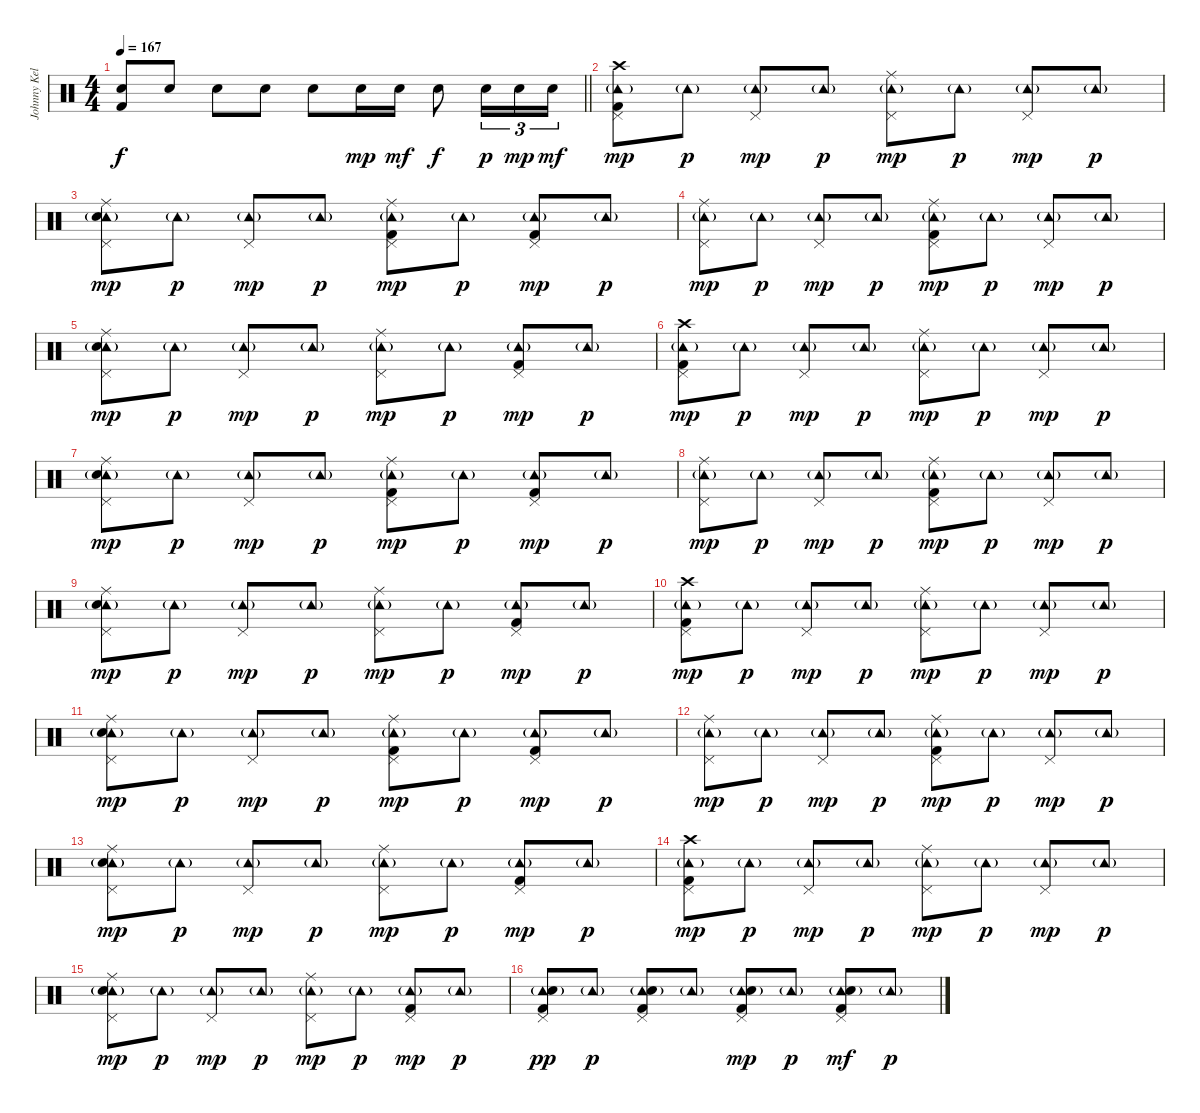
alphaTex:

\track ("Johnny Kelly" "Johnny Kel") {instrument percussion}
\staff {score}
\articulation defaults
\ts (4 4)
\tempo 167
\clef neutral
\barLineRight lightlight
\ks c
("Electric Snare (hit)" "Kick (hit) 2").8{dy f} "Electric Snare (hit)".8 "Electric Snare (hit)".8 "Electric Snare (hit)".8 "Electric Snare (hit)".8 "Electric Snare (hit)".16{dy mp} "Electric Snare (hit)".16{dy mf} "Electric Snare (hit)".8{dy f} "Electric Snare (hit)".16{tu (3 2) dy p} "Electric Snare (hit)".16{tu (3 2) dy mp} "Electric Snare (hit)".16{tu (3 2) dy mf} |
\section ("" "")
("Tambourine (hit)"{g} "Pedal Hi-Hat (hit)" "Crash high (hit)" "Kick (hit) 2").8{dy mp volume 15} "Tambourine (hit)"{g}.8{dy p} ("Tambourine (hit)"{g} "Pedal Hi-Hat (hit)").8{dy mp} "Tambourine (hit)"{g}.8{dy p} ("Tambourine (hit)"{g} "Pedal Hi-Hat (hit)" "Ride (middle)").8{dy mp} "Tambourine (hit)"{g}.8{dy p} ("Tambourine (hit)"{g} "Pedal Hi-Hat (hit)").8{dy mp} "Tambourine (hit)"{g}.8{dy p} |
("Tambourine (hit)"{g} "Pedal Hi-Hat (hit)" "Ride (middle)" "Electric Snare (hit)").8{dy mp} "Tambourine (hit)"{g}.8{dy p} ("Tambourine (hit)"{g} "Pedal Hi-Hat (hit)").8{dy mp} "Tambourine (hit)"{g}.8{dy p} ("Tambourine (hit)"{g} "Pedal Hi-Hat (hit)" "Ride (middle)" "Kick (hit) 2").8{dy mp} "Tambourine (hit)"{g}.8{dy p} ("Tambourine (hit)"{g} "Pedal Hi-Hat (hit)" "Kick (hit) 2").8{dy mp} "Tambourine (hit)"{g}.8{dy p} |
("Tambourine (hit)"{g} "Pedal Hi-Hat (hit)" "Ride (middle)").8{dy mp} "Tambourine (hit)"{g}.8{dy p} ("Tambourine (hit)"{g} "Pedal Hi-Hat (hit)").8{dy mp} "Tambourine (hit)"{g}.8{dy p} ("Tambourine (hit)"{g} "Pedal Hi-Hat (hit)" "Ride (middle)" "Kick (hit) 2").8{dy mp} "Tambourine (hit)"{g}.8{dy p} ("Tambourine (hit)"{g} "Pedal Hi-Hat (hit)").8{dy mp} "Tambourine (hit)"{g}.8{dy p} |
("Tambourine (hit)"{g} "Pedal Hi-Hat (hit)" "Ride (middle)" "Electric Snare (hit)").8{dy mp} "Tambourine (hit)"{g}.8{dy p} ("Tambourine (hit)"{g} "Pedal Hi-Hat (hit)").8{dy mp} "Tambourine (hit)"{g}.8{dy p} ("Tambourine (hit)"{g} "Pedal Hi-Hat (hit)" "Ride (middle)").8{dy mp} "Tambourine (hit)"{g}.8{dy p} ("Tambourine (hit)"{g} "Pedal Hi-Hat (hit)" "Kick (hit) 2").8{dy mp} "Tambourine (hit)"{g}.8{dy p} |
("Tambourine (hit)"{g} "Pedal Hi-Hat (hit)" "Crash high (hit)" "Kick (hit) 2").8{dy mp} "Tambourine (hit)"{g}.8{dy p} ("Tambourine (hit)"{g} "Pedal Hi-Hat (hit)").8{dy mp} "Tambourine (hit)"{g}.8{dy p} ("Tambourine (hit)"{g} "Pedal Hi-Hat (hit)" "Ride (middle)").8{dy mp} "Tambourine (hit)"{g}.8{dy p} ("Tambourine (hit)"{g} "Pedal Hi-Hat (hit)").8{dy mp} "Tambourine (hit)"{g}.8{dy p} |
("Tambourine (hit)"{g} "Pedal Hi-Hat (hit)" "Ride (middle)" "Electric Snare (hit)").8{dy mp} "Tambourine (hit)"{g}.8{dy p} ("Tambourine (hit)"{g} "Pedal Hi-Hat (hit)").8{dy mp} "Tambourine (hit)"{g}.8{dy p} ("Tambourine (hit)"{g} "Pedal Hi-Hat (hit)" "Ride (middle)" "Kick (hit) 2").8{dy mp} "Tambourine (hit)"{g}.8{dy p} ("Tambourine (hit)"{g} "Pedal Hi-Hat (hit)" "Kick (hit) 2").8{dy mp} "Tambourine (hit)"{g}.8{dy p} |
("Tambourine (hit)"{g} "Pedal Hi-Hat (hit)" "Ride (middle)").8{dy mp} "Tambourine (hit)"{g}.8{dy p} ("Tambourine (hit)"{g} "Pedal Hi-Hat (hit)").8{dy mp} "Tambourine (hit)"{g}.8{dy p} ("Tambourine (hit)"{g} "Pedal Hi-Hat (hit)" "Ride (middle)" "Kick (hit) 2").8{dy mp} "Tambourine (hit)"{g}.8{dy p} ("Tambourine (hit)"{g} "Pedal Hi-Hat (hit)").8{dy mp} "Tambourine (hit)"{g}.8{dy p} |
("Tambourine (hit)"{g} "Pedal Hi-Hat (hit)" "Ride (middle)" "Electric Snare (hit)").8{dy mp} "Tambourine (hit)"{g}.8{dy p} ("Tambourine (hit)"{g} "Pedal Hi-Hat (hit)").8{dy mp} "Tambourine (hit)"{g}.8{dy p} ("Tambourine (hit)"{g} "Pedal Hi-Hat (hit)" "Ride (middle)").8{dy mp} "Tambourine (hit)"{g}.8{dy p} ("Tambourine (hit)"{g} "Pedal Hi-Hat (hit)" "Kick (hit) 2").8{dy mp} "Tambourine (hit)"{g}.8{dy p} |
("Tambourine (hit)"{g} "Pedal Hi-Hat (hit)" "Crash high (hit)" "Kick (hit) 2").8{dy mp} "Tambourine (hit)"{g}.8{dy p} ("Tambourine (hit)"{g} "Pedal Hi-Hat (hit)").8{dy mp} "Tambourine (hit)"{g}.8{dy p} ("Tambourine (hit)"{g} "Pedal Hi-Hat (hit)" "Ride (middle)").8{dy mp} "Tambourine (hit)"{g}.8{dy p} ("Tambourine (hit)"{g} "Pedal Hi-Hat (hit)").8{dy mp} "Tambourine (hit)"{g}.8{dy p} |
("Tambourine (hit)"{g} "Pedal Hi-Hat (hit)" "Ride (middle)" "Electric Snare (hit)").8{dy mp} "Tambourine (hit)"{g}.8{dy p} ("Tambourine (hit)"{g} "Pedal Hi-Hat (hit)").8{dy mp} "Tambourine (hit)"{g}.8{dy p} ("Tambourine (hit)"{g} "Pedal Hi-Hat (hit)" "Ride (middle)" "Kick (hit) 2").8{dy mp} "Tambourine (hit)"{g}.8{dy p} ("Tambourine (hit)"{g} "Pedal Hi-Hat (hit)" "Kick (hit) 2").8{dy mp} "Tambourine (hit)"{g}.8{dy p} |
("Tambourine (hit)"{g} "Pedal Hi-Hat (hit)" "Ride (middle)").8{dy mp} "Tambourine (hit)"{g}.8{dy p} ("Tambourine (hit)"{g} "Pedal Hi-Hat (hit)").8{dy mp} "Tambourine (hit)"{g}.8{dy p} ("Tambourine (hit)"{g} "Pedal Hi-Hat (hit)" "Ride (middle)" "Kick (hit) 2").8{dy mp} "Tambourine (hit)"{g}.8{dy p} ("Tambourine (hit)"{g} "Pedal Hi-Hat (hit)").8{dy mp} "Tambourine (hit)"{g}.8{dy p} |
("Tambourine (hit)"{g} "Pedal Hi-Hat (hit)" "Ride (middle)" "Electric Snare (hit)").8{dy mp} "Tambourine (hit)"{g}.8{dy p} ("Tambourine (hit)"{g} "Pedal Hi-Hat (hit)").8{dy mp} "Tambourine (hit)"{g}.8{dy p} ("Tambourine (hit)"{g} "Pedal Hi-Hat (hit)" "Ride (middle)").8{dy mp} "Tambourine (hit)"{g}.8{dy p} ("Tambourine (hit)"{g} "Pedal Hi-Hat (hit)" "Kick (hit) 2").8{dy mp} "Tambourine (hit)"{g}.8{dy p} |
("Tambourine (hit)"{g} "Pedal Hi-Hat (hit)" "Crash high (hit)" "Kick (hit) 2").8{dy mp} "Tambourine (hit)"{g}.8{dy p} ("Tambourine (hit)"{g} "Pedal Hi-Hat (hit)").8{dy mp} "Tambourine (hit)"{g}.8{dy p} ("Tambourine (hit)"{g} "Pedal Hi-Hat (hit)" "Ride (middle)").8{dy mp} "Tambourine (hit)"{g}.8{dy p} ("Tambourine (hit)"{g} "Pedal Hi-Hat (hit)").8{dy mp} "Tambourine (hit)"{g}.8{dy p} |
("Tambourine (hit)"{g} "Pedal Hi-Hat (hit)" "Ride (middle)" "Electric Snare (hit)").8{dy mp} "Tambourine (hit)"{g}.8{dy p} ("Tambourine (hit)"{g} "Pedal Hi-Hat (hit)").8{dy mp} "Tambourine (hit)"{g}.8{dy p} ("Tambourine (hit)"{g} "Pedal Hi-Hat (hit)" "Ride (middle)").8{dy mp} "Tambourine (hit)"{g}.8{dy p} ("Tambourine (hit)"{g} "Pedal Hi-Hat (hit)" "Kick (hit) 2").8{dy mp} "Tambourine (hit)"{g}.8{dy p} |
("Tambourine (hit)"{g} "Pedal Hi-Hat (hit)" "Electric Snare (hit)" "Kick (hit) 2").8{dy pp} "Tambourine (hit)"{g}.8{dy p} ("Tambourine (hit)"{g} "Pedal Hi-Hat (hit)" "Electric Snare (hit)" "Kick (hit) 2").8 "Tambourine (hit)"{g}.8 ("Tambourine (hit)"{g} "Pedal Hi-Hat (hit)" "Electric Snare (hit)" "Kick (hit) 2").8{dy mp} "Tambourine (hit)"{g}.8{dy p} ("Tambourine (hit)"{g} "Pedal Hi-Hat (hit)" "Electric Snare (hit)" "Kick (hit) 2").8{dy mf} "Tambourine (hit)"{g}.8{dy p}
